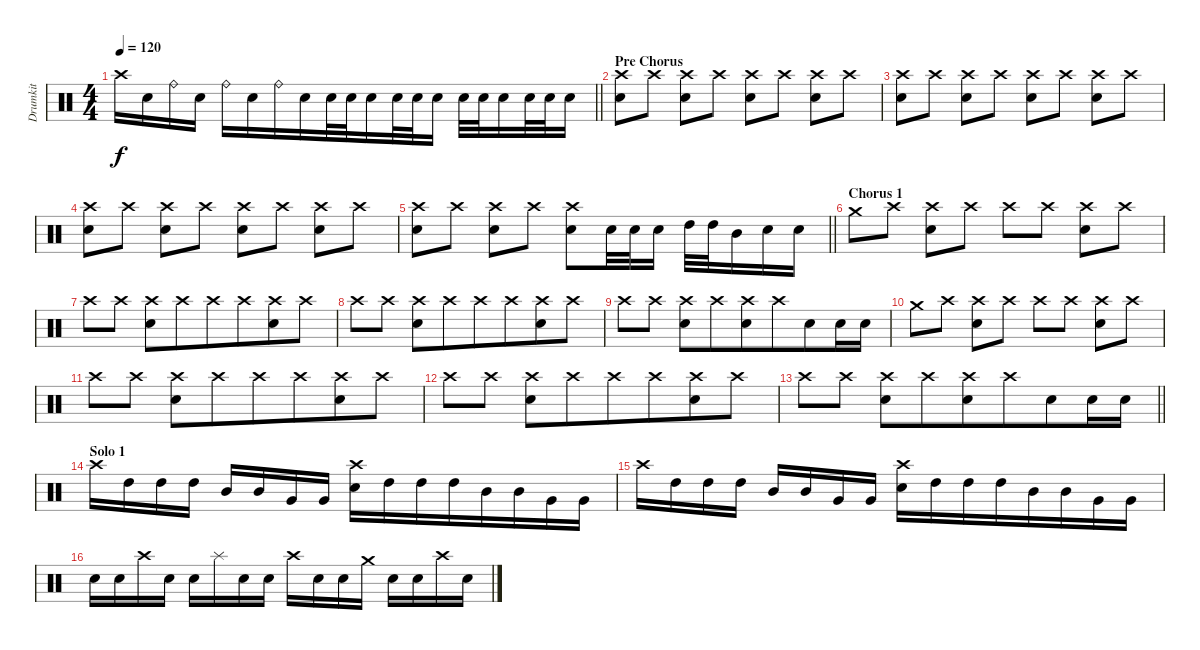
\track ("Drumkit" "Drumkit") {instrument percussion}
\staff {score}
\articulation defaults
\ts (4 4)
\tempo 120
\clef neutral
\barLineRight lightlight
\ks c "Crash high (hit)".16{dy f} "Electric Snare (hit)".16 "Ride (bell)".16 "Electric Snare (hit)".16 "Ride (bell)".16 "Electric Snare (hit)".16{beam merge} "Ride (bell)".16 "Electric Snare (hit)".16{beam merge} "Electric Snare (hit)".32 "Electric Snare (hit)".32{beam merge} "Electric Snare (hit)".16{beam merge} "Electric Snare (hit)".32 "Electric Snare (hit)".32 "Electric Snare (hit)".16 "Electric Snare (hit)".32 "Electric Snare (hit)".32{beam merge} "Electric Snare (hit)".16 "Electric Snare (hit)".32 "Electric Snare (hit)".32{beam merge} "Electric Snare (hit)".16
|
\section ("" "Pre Chorus")
("Crash high (hit)" "Electric Snare (hit)").8 "Crash high (hit)".8 ("Crash high (hit)" "Electric Snare (hit)").8 "Crash high (hit)".8 ("Crash high (hit)" "Electric Snare (hit)").8 "Crash high (hit)".8 ("Crash high (hit)" "Electric Snare (hit)").8{beam merge} "Crash high (hit)".8 |
("Crash high (hit)" "Electric Snare (hit)").8 "Crash high (hit)".8 ("Crash high (hit)" "Electric Snare (hit)").8 "Crash high (hit)".8 ("Crash high (hit)" "Electric Snare (hit)").8 "Crash high (hit)".8 ("Crash high (hit)" "Electric Snare (hit)").8{beam merge} "Crash high (hit)".8 |
("Crash high (hit)" "Electric Snare (hit)").8 "Crash high (hit)".8 ("Crash high (hit)" "Electric Snare (hit)").8 "Crash high (hit)".8 ("Crash high (hit)" "Electric Snare (hit)").8 "Crash high (hit)".8 ("Crash high (hit)" "Electric Snare (hit)").8{beam merge} "Crash high (hit)".8 |
\barLineRight lightlight
("Crash high (hit)" "Electric Snare (hit)").8 "Crash high (hit)".8 ("Crash high (hit)" "Electric Snare (hit)").8 "Crash high (hit)".8 ("Crash high (hit)" "Electric Snare (hit)").8 "Electric Snare (hit)".32 "Electric Snare (hit)".32 "Electric Snare (hit)".16 "High Tom (hit)".32{beam merge} "High Tom (hit)".32{beam merge} "Mid Tom (hit)".16 "Electric Snare (hit)".16{beam merge} "Electric Snare (hit)".16 |
\section ("" "Chorus 1")
"Crash medium (hit)".8 "Crash high (hit)".8 ("Crash high (hit)" "Electric Snare (hit)").8{beam merge} "Crash high (hit)".8 "Crash high (hit)".8{beam merge} "Crash high (hit)".8 ("Crash high (hit)" "Electric Snare (hit)").8 "Crash high (hit)".8 |
"Crash high (hit)".8{beam merge} "Crash high (hit)".8 ("Crash high (hit)" "Electric Snare (hit)").8 "Crash high (hit)".8{beam merge} "Crash high (hit)".8 "Crash high (hit)".8{beam merge} ("Crash high (hit)" "Electric Snare (hit)").8 "Crash high (hit)".8 |
"Crash high (hit)".8{beam merge} "Crash high (hit)".8 ("Crash high (hit)" "Electric Snare (hit)").8 "Crash high (hit)".8{beam merge} "Crash high (hit)".8 "Crash high (hit)".8{beam merge} ("Crash high (hit)" "Electric Snare (hit)").8 "Crash high (hit)".8 |
"Crash high (hit)".8{beam merge} "Crash high (hit)".8 ("Crash high (hit)" "Electric Snare (hit)").8 "Crash high (hit)".8{beam merge} ("Crash high (hit)" "Electric Snare (hit)").8 "Crash high (hit)".8{beam merge} "Electric Snare (hit)".8 "Electric Snare (hit)".16 "Electric Snare (hit)".16 |
"Crash medium (hit)".8 "Crash high (hit)".8 ("Crash high (hit)" "Electric Snare (hit)").8{beam merge} "Crash high (hit)".8 "Crash high (hit)".8{beam merge} "Crash high (hit)".8 ("Crash high (hit)" "Electric Snare (hit)").8 "Crash high (hit)".8 |
"Crash high (hit)".8{beam merge} "Crash high (hit)".8 ("Crash high (hit)" "Electric Snare (hit)").8 "Crash high (hit)".8{beam merge} "Crash high (hit)".8 "Crash high (hit)".8{beam merge} ("Crash high (hit)" "Electric Snare (hit)").8 "Crash high (hit)".8 |
"Crash high (hit)".8{beam merge} "Crash high (hit)".8 ("Crash high (hit)" "Electric Snare (hit)").8 "Crash high (hit)".8{beam merge} "Crash high (hit)".8 "Crash high (hit)".8{beam merge} ("Crash high (hit)" "Electric Snare (hit)").8 "Crash high (hit)".8 |
\barLineRight lightlight "Crash high (hit)".8{beam merge} "Crash high (hit)".8
("Crash high (hit)" "Electric Snare (hit)").8 "Crash high (hit)".8{beam merge} ("Crash high (hit)" "Electric Snare (hit)").8 "Crash high (hit)".8{beam merge} "Electric Snare (hit)".8 "Electric Snare (hit)".16 "Electric Snare (hit)".16 |
\section ("" "Solo 1")
"Crash high (hit)".16{beam merge} "High Tom (hit)".16 "High Tom (hit)".16{beam merge} "High Tom (hit)".16 "Mid Tom (hit)".16 "Mid Tom (hit)".16 "Very Low Tom (hit)".16{beam merge} "Very Low Tom (hit)".16 ("Crash high (hit)" "Electric Snare (hit)").16{beam merge} "High Tom (hit)".16{beam merge} "High Tom (hit)".16 "High Tom (hit)".16{beam merge} "Mid Tom (hit)".16 "Mid Tom (hit)".16 "Very Low Tom (hit)".16 "Very Low Tom (hit)".16 |
"Crash high (hit)".16{beam merge} "High Tom (hit)".16 "High Tom (hit)".16{beam merge} "High Tom (hit)".16 "Mid Tom (hit)".16 "Mid Tom (hit)".16 "Very Low Tom (hit)".16{beam merge} "Very Low Tom (hit)".16 ("Crash high (hit)" "Electric Snare (hit)").16{beam merge} "High Tom (hit)".16{beam merge} "High Tom (hit)".16 "High Tom (hit)".16{beam merge} "Mid Tom (hit)".16 "Mid Tom (hit)".16 "Very Low Tom (hit)".16 "Very Low Tom (hit)".16 |
"Electric Snare (hit)".16 "Electric Snare (hit)".16 "Crash high (hit)".16 "Electric Snare (hit)".16 "Electric Snare (hit)".16 "Splash (hit)".16 "Electric Snare (hit)".16 "Electric Snare (hit)".16 "Crash high (hit)".16{beam merge} "Electric Snare (hit)".16 "Electric Snare (hit)".16 "Crash medium (hit)".16 "Electric Snare (hit)".16{beam merge} "Electric Snare (hit)".16 "Crash high (hit)".16 "Electric Snare (hit)".16
